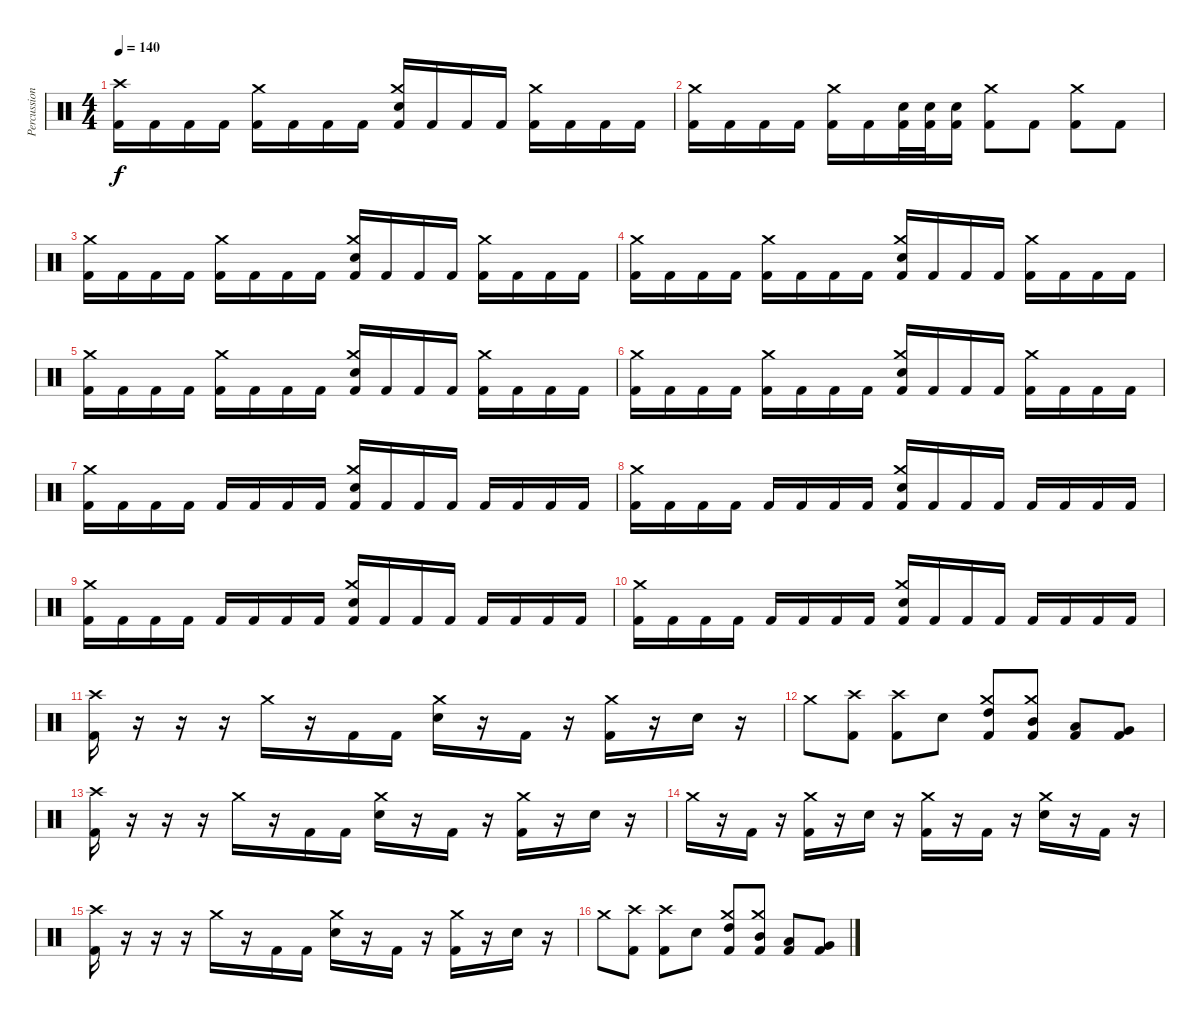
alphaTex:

\track ("Percussion" "Percussion") {instrument percussion}
\staff {score}
\articulation defaults
\ts (4 4)
\tempo 140
\clef neutral
\ks c
("Crash high (hit)" "Kick (hit) 2").16{dy f} "Kick (hit) 2".16 "Kick (hit) 2".16 "Kick (hit) 2".16 ("Crash medium (hit)" "Kick (hit) 2").16 "Kick (hit) 2".16 "Kick (hit) 2".16 "Kick (hit) 2".16 ("Crash medium (hit)" "Snare (hit) 2" "Kick (hit) 2").16 "Kick (hit) 2".16 "Kick (hit) 2".16 "Kick (hit) 2".16 ("Crash medium (hit)" "Kick (hit) 2").16 "Kick (hit) 2".16 "Kick (hit) 2".16 "Kick (hit) 2".16 |
("Crash medium (hit)" "Kick (hit) 2").16 "Kick (hit) 2".16 "Kick (hit) 2".16 "Kick (hit) 2".16 ("Crash medium (hit)" "Kick (hit) 2").16 "Kick (hit) 2".16 ("Snare (hit) 2" "Kick (hit) 2").32 ("Snare (hit) 2" "Kick (hit) 2").32 ("Snare (hit) 2" "Kick (hit) 2").16 ("Crash medium (hit)" "Kick (hit) 2").8 "Kick (hit) 2".8 ("Crash medium (hit)" "Kick (hit) 2").8 "Kick (hit) 2".8 |
("Crash medium (hit)" "Kick (hit) 2").16 "Kick (hit) 2".16 "Kick (hit) 2".16 "Kick (hit) 2".16 ("Crash medium (hit)" "Kick (hit) 2").16 "Kick (hit) 2".16 "Kick (hit) 2".16 "Kick (hit) 2".16 ("Crash medium (hit)" "Snare (hit) 2" "Kick (hit) 2").16 "Kick (hit) 2".16 "Kick (hit) 2".16 "Kick (hit) 2".16 ("Crash medium (hit)" "Kick (hit) 2").16 "Kick (hit) 2".16 "Kick (hit) 2".16 "Kick (hit) 2".16 |
("Crash medium (hit)" "Kick (hit) 2").16 "Kick (hit) 2".16 "Kick (hit) 2".16 "Kick (hit) 2".16 ("Crash medium (hit)" "Kick (hit) 2").16 "Kick (hit) 2".16 "Kick (hit) 2".16 "Kick (hit) 2".16 ("Crash medium (hit)" "Snare (hit) 2" "Kick (hit) 2").16 "Kick (hit) 2".16 "Kick (hit) 2".16 "Kick (hit) 2".16 ("Crash medium (hit)" "Kick (hit) 2").16 "Kick (hit) 2".16 "Kick (hit) 2".16 "Kick (hit) 2".16 |
("Crash medium (hit)" "Kick (hit) 2").16 "Kick (hit) 2".16 "Kick (hit) 2".16 "Kick (hit) 2".16 ("Crash medium (hit)" "Kick (hit) 2").16 "Kick (hit) 2".16 "Kick (hit) 2".16 "Kick (hit) 2".16 ("Crash medium (hit)" "Snare (hit) 2" "Kick (hit) 2").16 "Kick (hit) 2".16 "Kick (hit) 2".16 "Kick (hit) 2".16 ("Crash medium (hit)" "Kick (hit) 2").16 "Kick (hit) 2".16 "Kick (hit) 2".16 "Kick (hit) 2".16 |
("Crash medium (hit)" "Kick (hit) 2").16 "Kick (hit) 2".16 "Kick (hit) 2".16 "Kick (hit) 2".16 ("Crash medium (hit)" "Kick (hit) 2").16 "Kick (hit) 2".16 "Kick (hit) 2".16 "Kick (hit) 2".16 ("Crash medium (hit)" "Snare (hit) 2" "Kick (hit) 2").16 "Kick (hit) 2".16 "Kick (hit) 2".16 "Kick (hit) 2".16 ("Crash medium (hit)" "Kick (hit) 2").16 "Kick (hit) 2".16 "Kick (hit) 2".16 "Kick (hit) 2".16 |
("Crash medium (hit)" "Kick (hit) 2").16 "Kick (hit) 2".16 "Kick (hit) 2".16 "Kick (hit) 2".16 "Kick (hit) 2".16 "Kick (hit) 2".16 "Kick (hit) 2".16 "Kick (hit) 2".16 ("Crash medium (hit)" "Snare (hit) 2" "Kick (hit) 2").16 "Kick (hit) 2".16 "Kick (hit) 2".16 "Kick (hit) 2".16 "Kick (hit) 2".16 "Kick (hit) 2".16 "Kick (hit) 2".16 "Kick (hit) 2".16 |
("Crash medium (hit)" "Kick (hit) 2").16 "Kick (hit) 2".16 "Kick (hit) 2".16 "Kick (hit) 2".16 "Kick (hit) 2".16 "Kick (hit) 2".16 "Kick (hit) 2".16 "Kick (hit) 2".16 ("Crash medium (hit)" "Snare (hit) 2" "Kick (hit) 2").16 "Kick (hit) 2".16 "Kick (hit) 2".16 "Kick (hit) 2".16 "Kick (hit) 2".16 "Kick (hit) 2".16 "Kick (hit) 2".16 "Kick (hit) 2".16 |
("Crash medium (hit)" "Kick (hit) 2").16 "Kick (hit) 2".16 "Kick (hit) 2".16 "Kick (hit) 2".16 "Kick (hit) 2".16 "Kick (hit) 2".16 "Kick (hit) 2".16 "Kick (hit) 2".16 ("Crash medium (hit)" "Snare (hit) 2" "Kick (hit) 2").16 "Kick (hit) 2".16 "Kick (hit) 2".16 "Kick (hit) 2".16 "Kick (hit) 2".16 "Kick (hit) 2".16 "Kick (hit) 2".16 "Kick (hit) 2".16 |
("Crash medium (hit)" "Kick (hit) 2").16 "Kick (hit) 2".16 "Kick (hit) 2".16 "Kick (hit) 2".16 "Kick (hit) 2".16 "Kick (hit) 2".16 "Kick (hit) 2".16 "Kick (hit) 2".16 ("Crash medium (hit)" "Snare (hit) 2" "Kick (hit) 2").16 "Kick (hit) 2".16 "Kick (hit) 2".16 "Kick (hit) 2".16 "Kick (hit) 2".16 "Kick (hit) 2".16 "Kick (hit) 2".16 "Kick (hit) 2".16 |
("Crash high (hit)" "Kick (hit) 2").16 r.16 r.16 r.16 "Crash medium (hit)".16 r.16 "Kick (hit) 2".16 "Kick (hit) 2".16 ("Crash medium (hit)" "Snare (hit) 2").16 r.16 "Kick (hit) 2".16 r.16 ("Crash medium (hit)" "Kick (hit) 2").16 r.16 "Snare (hit) 2".16 r.16 |
"Crash medium (hit)".8 ("Crash high (hit)" "Kick (hit) 2").8 ("Crash high (hit)" "Kick (hit) 2").8 "Snare (hit) 2".8 ("Crash medium (hit)" "High Tom (hit)" "Kick (hit) 2").8 ("Crash medium (hit)" "Mid Tom (hit)" "Kick (hit) 2").8 ("Low Tom (hit)" "Kick (hit) 2").8 ("Very Low Tom (hit)" "Kick (hit) 2").8 |
("Crash high (hit)" "Kick (hit) 2").16 r.16 r.16 r.16 "Crash medium (hit)".16 r.16 "Kick (hit) 2".16 "Kick (hit) 2".16 ("Crash medium (hit)" "Snare (hit) 2").16 r.16 "Kick (hit) 2".16 r.16 ("Crash medium (hit)" "Kick (hit) 2").16 r.16 "Snare (hit) 2".16 r.16 |
"Crash medium (hit)".16 r.16 "Kick (hit) 2".16 r.16 ("Crash medium (hit)" "Kick (hit) 2").16 r.16 "Snare (hit) 2".16 r.16 ("Crash medium (hit)" "Kick (hit) 2").16 r.16 "Kick (hit) 2".16 r.16 ("Crash medium (hit)" "Snare (hit) 2").16 r.16 "Kick (hit) 2".16 r.16 |
("Crash high (hit)" "Kick (hit) 2").16 r.16 r.16 r.16 "Crash medium (hit)".16 r.16 "Kick (hit) 2".16 "Kick (hit) 2".16 ("Crash medium (hit)" "Snare (hit) 2").16 r.16 "Kick (hit) 2".16 r.16 ("Crash medium (hit)" "Kick (hit) 2").16 r.16 "Snare (hit) 2".16 r.16 |
"Crash medium (hit)".8 ("Crash high (hit)" "Kick (hit) 2").8 ("Crash high (hit)" "Kick (hit) 2").8 "Snare (hit) 2".8 ("Crash medium (hit)" "High Tom (hit)" "Kick (hit) 2").8 ("Crash medium (hit)" "Mid Tom (hit)" "Kick (hit) 2").8 ("Low Tom (hit)" "Kick (hit) 2").8 ("Very Low Tom (hit)" "Kick (hit) 2").8
